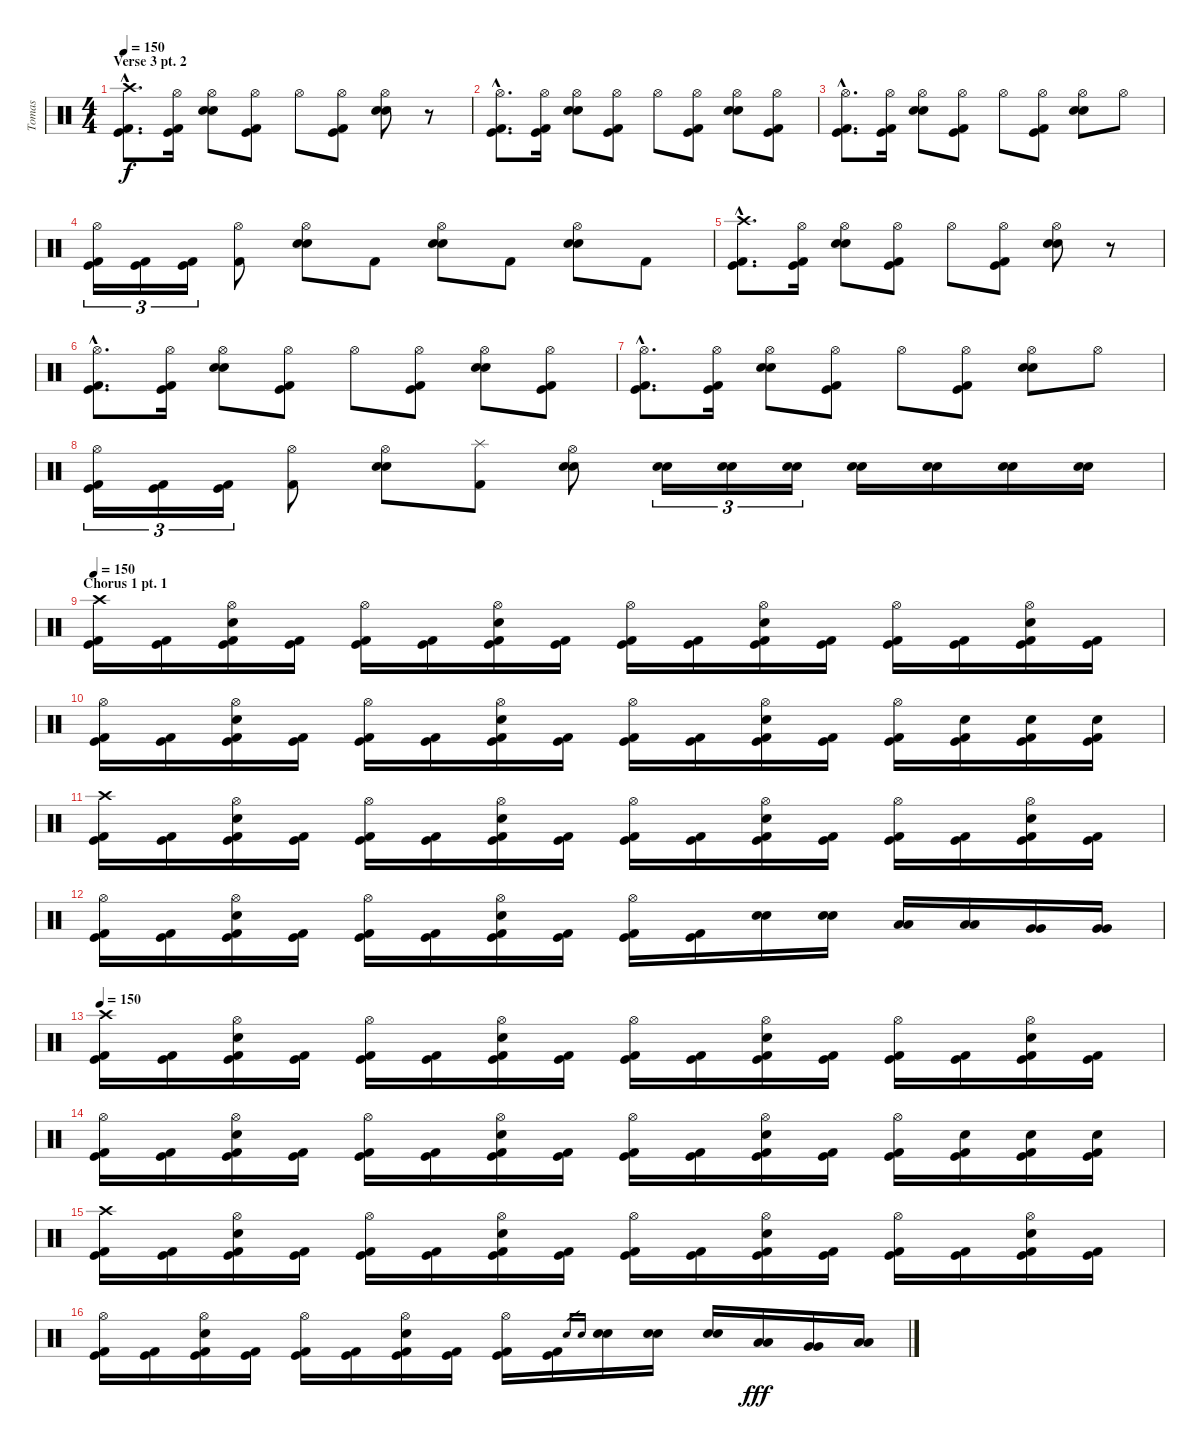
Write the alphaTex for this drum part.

\track ("Tomas" "Tomas") {instrument percussion}
\staff {score}
\articulation defaults
\ts (4 4)
\section ("" "Verse 3 pt. 2")
\tempo 150
\clef neutral
\ks c
("Crash high (hit)"{hac} "Kick (hit)"{hac} "Kick (hit) 2"{hac}).8{d dy f} ("Hi-Hat (open)" "Kick (hit)" "Kick (hit) 2").16 ("Hi-Hat (open)" "Electric Snare (hit)" "Electric Snare (hit)").8 ("Hi-Hat (open)" "Kick (hit)" "Kick (hit) 2").8 "Hi-Hat (open)".8 ("Hi-Hat (open)" "Kick (hit)" "Kick (hit) 2").8 ("Hi-Hat (open)" "Electric Snare (hit)" "Electric Snare (hit)").8 r.8 |
("Hi-Hat (open)"{hac} "Kick (hit)"{hac} "Kick (hit) 2"{hac}).8{d} ("Hi-Hat (open)" "Kick (hit)" "Kick (hit) 2").16 ("Hi-Hat (open)" "Electric Snare (hit)" "Electric Snare (hit)").8 ("Hi-Hat (open)" "Kick (hit)" "Kick (hit) 2").8 "Hi-Hat (open)".8 ("Hi-Hat (open)" "Kick (hit)" "Kick (hit) 2").8 ("Hi-Hat (open)" "Electric Snare (hit)" "Electric Snare (hit)").8 ("Hi-Hat (open)" "Kick (hit)" "Kick (hit) 2").8 |
("Hi-Hat (open)"{hac} "Kick (hit)"{hac} "Kick (hit) 2"{hac}).8{d} ("Hi-Hat (open)" "Kick (hit)" "Kick (hit) 2").16 ("Hi-Hat (open)" "Electric Snare (hit)" "Electric Snare (hit)").8 ("Hi-Hat (open)" "Kick (hit)" "Kick (hit) 2").8 "Hi-Hat (open)".8 ("Hi-Hat (open)" "Kick (hit)" "Kick (hit) 2").8 ("Hi-Hat (open)" "Electric Snare (hit)" "Electric Snare (hit)").8 "Hi-Hat (open)".8 |
("Hi-Hat (open)" "Kick (hit)" "Kick (hit) 2").16{tu (3 2)} ("Kick (hit)" "Kick (hit) 2").16{tu (3 2)} ("Kick (hit)" "Kick (hit) 2").16{tu (3 2)} ("Hi-Hat (open)" "Kick (hit) 2").8 ("Hi-Hat (open)" "Electric Snare (hit)" "Electric Snare (hit)").8 "Kick (hit) 2".8 ("Hi-Hat (open)" "Electric Snare (hit)" "Electric Snare (hit)").8 "Kick (hit) 2".8 ("Hi-Hat (open)" "Electric Snare (hit)" "Electric Snare (hit)").8 "Kick (hit) 2".8 |
("Crash high (hit)"{hac} "Kick (hit)"{hac} "Kick (hit) 2"{hac}).8{d} ("Hi-Hat (open)" "Kick (hit)" "Kick (hit) 2").16 ("Hi-Hat (open)" "Electric Snare (hit)" "Electric Snare (hit)").8 ("Hi-Hat (open)" "Kick (hit)" "Kick (hit) 2").8 "Hi-Hat (open)".8 ("Hi-Hat (open)" "Kick (hit)" "Kick (hit) 2").8 ("Hi-Hat (open)" "Electric Snare (hit)" "Electric Snare (hit)").8 r.8 |
("Hi-Hat (open)"{hac} "Kick (hit)"{hac} "Kick (hit) 2"{hac}).8{d} ("Hi-Hat (open)" "Kick (hit)" "Kick (hit) 2").16 ("Hi-Hat (open)" "Electric Snare (hit)" "Electric Snare (hit)").8 ("Hi-Hat (open)" "Kick (hit)" "Kick (hit) 2").8 "Hi-Hat (open)".8 ("Hi-Hat (open)" "Kick (hit)" "Kick (hit) 2").8 ("Hi-Hat (open)" "Electric Snare (hit)" "Electric Snare (hit)").8 ("Hi-Hat (open)" "Kick (hit)" "Kick (hit) 2").8 |
("Hi-Hat (open)"{hac} "Kick (hit)"{hac} "Kick (hit) 2"{hac}).8{d} ("Hi-Hat (open)" "Kick (hit)" "Kick (hit) 2").16 ("Hi-Hat (open)" "Electric Snare (hit)" "Electric Snare (hit)").8 ("Hi-Hat (open)" "Kick (hit)" "Kick (hit) 2").8 "Hi-Hat (open)".8 ("Hi-Hat (open)" "Kick (hit)" "Kick (hit) 2").8 ("Hi-Hat (open)" "Electric Snare (hit)" "Electric Snare (hit)").8 "Hi-Hat (open)".8 |
("Hi-Hat (open)" "Kick (hit)" "Kick (hit) 2").16{tu (3 2)} ("Kick (hit)" "Kick (hit) 2").16{tu (3 2)} ("Kick (hit)" "Kick (hit) 2").16{tu (3 2)} ("Hi-Hat (open)" "Kick (hit) 2").8 ("Hi-Hat (open)" "Electric Snare (hit)" "Electric Snare (hit)").8 ("Splash (hit)" "Kick (hit) 2").8 ("Hi-Hat (open)" "Electric Snare (hit)" "Electric Snare (hit)").8 ("Electric Snare (hit)" "Electric Snare (hit)").16{tu (3 2)} ("Electric Snare (hit)" "Electric Snare (hit)").16{tu (3 2)} ("Electric Snare (hit)" "Electric Snare (hit)").16{tu (3 2)} ("Electric Snare (hit)" "Electric Snare (hit)").16 ("Electric Snare (hit)" "Electric Snare (hit)").16 ("Electric Snare (hit)" "Electric Snare (hit)").16 ("Electric Snare (hit)" "Electric Snare (hit)").16 |
\section ("" "Chorus 1 pt. 1")
\tempo 150
("Crash high (hit)" "Kick (hit)" "Kick (hit) 2").16 ("Kick (hit)" "Kick (hit) 2").16 ("Hi-Hat (open)" "Electric Snare (hit)" "Kick (hit)" "Kick (hit) 2").16 ("Kick (hit)" "Kick (hit) 2").16 ("Hi-Hat (open)" "Kick (hit)" "Kick (hit) 2").16 ("Kick (hit)" "Kick (hit) 2").16 ("Hi-Hat (open)" "Electric Snare (hit)" "Kick (hit)" "Kick (hit) 2").16 ("Kick (hit)" "Kick (hit) 2").16 ("Hi-Hat (open)" "Kick (hit)" "Kick (hit) 2").16 ("Kick (hit)" "Kick (hit) 2").16 ("Hi-Hat (open)" "Electric Snare (hit)" "Kick (hit)" "Kick (hit) 2").16 ("Kick (hit)" "Kick (hit) 2").16 ("Hi-Hat (open)" "Kick (hit)" "Kick (hit) 2").16 ("Kick (hit)" "Kick (hit) 2").16 ("Hi-Hat (open)" "Electric Snare (hit)" "Kick (hit)" "Kick (hit) 2").16 ("Kick (hit)" "Kick (hit) 2").16 |
("Hi-Hat (open)" "Kick (hit)" "Kick (hit) 2").16 ("Kick (hit)" "Kick (hit) 2").16 ("Hi-Hat (open)" "Electric Snare (hit)" "Kick (hit)" "Kick (hit) 2").16 ("Kick (hit)" "Kick (hit) 2").16 ("Hi-Hat (open)" "Kick (hit)" "Kick (hit) 2").16 ("Kick (hit)" "Kick (hit) 2").16 ("Hi-Hat (open)" "Electric Snare (hit)" "Kick (hit)" "Kick (hit) 2").16 ("Kick (hit)" "Kick (hit) 2").16 ("Hi-Hat (open)" "Kick (hit)" "Kick (hit) 2").16 ("Kick (hit)" "Kick (hit) 2").16 ("Hi-Hat (open)" "Electric Snare (hit)" "Kick (hit)" "Kick (hit) 2").16 ("Kick (hit)" "Kick (hit) 2").16 ("Hi-Hat (open)" "Kick (hit)" "Kick (hit) 2").16 ("Electric Snare (hit)" "Kick (hit)" "Kick (hit) 2").16 ("Electric Snare (hit)" "Kick (hit)" "Kick (hit) 2").16 ("Electric Snare (hit)" "Kick (hit)" "Kick (hit) 2").16 |
("Crash high (hit)" "Kick (hit)" "Kick (hit) 2").16 ("Kick (hit)" "Kick (hit) 2").16 ("Hi-Hat (open)" "Electric Snare (hit)" "Kick (hit)" "Kick (hit) 2").16 ("Kick (hit)" "Kick (hit) 2").16 ("Hi-Hat (open)" "Kick (hit)" "Kick (hit) 2").16 ("Kick (hit)" "Kick (hit) 2").16 ("Hi-Hat (open)" "Electric Snare (hit)" "Kick (hit)" "Kick (hit) 2").16 ("Kick (hit)" "Kick (hit) 2").16 ("Hi-Hat (open)" "Kick (hit)" "Kick (hit) 2").16 ("Kick (hit)" "Kick (hit) 2").16 ("Hi-Hat (open)" "Electric Snare (hit)" "Kick (hit)" "Kick (hit) 2").16 ("Kick (hit)" "Kick (hit) 2").16 ("Hi-Hat (open)" "Kick (hit)" "Kick (hit) 2").16 ("Kick (hit)" "Kick (hit) 2").16 ("Hi-Hat (open)" "Electric Snare (hit)" "Kick (hit)" "Kick (hit) 2").16 ("Kick (hit)" "Kick (hit) 2").16 |
("Hi-Hat (open)" "Kick (hit)" "Kick (hit) 2").16 ("Kick (hit)" "Kick (hit) 2").16 ("Hi-Hat (open)" "Electric Snare (hit)" "Kick (hit)" "Kick (hit) 2").16 ("Kick (hit)" "Kick (hit) 2").16 ("Hi-Hat (open)" "Kick (hit)" "Kick (hit) 2").16 ("Kick (hit)" "Kick (hit) 2").16 ("Hi-Hat (open)" "Electric Snare (hit)" "Kick (hit)" "Kick (hit) 2").16 ("Kick (hit)" "Kick (hit) 2").16 ("Hi-Hat (open)" "Kick (hit)" "Kick (hit) 2").16 ("Kick (hit)" "Kick (hit) 2").16 ("Electric Snare (hit)" "Electric Snare (hit)").16 ("Electric Snare (hit)" "Electric Snare (hit)").16 ("Low Tom (hit)" "Low Tom (hit)").16 ("Low Tom (hit)" "Low Tom (hit)").16 ("Very Low Tom (hit)" "Very Low Tom (hit)").16 ("Very Low Tom (hit)" "Very Low Tom (hit)").16 |
\tempo 150
("Crash high (hit)" "Kick (hit)" "Kick (hit) 2").16 ("Kick (hit)" "Kick (hit) 2").16 ("Hi-Hat (open)" "Electric Snare (hit)" "Kick (hit)" "Kick (hit) 2").16 ("Kick (hit)" "Kick (hit) 2").16 ("Hi-Hat (open)" "Kick (hit)" "Kick (hit) 2").16 ("Kick (hit)" "Kick (hit) 2").16 ("Hi-Hat (open)" "Electric Snare (hit)" "Kick (hit)" "Kick (hit) 2").16 ("Kick (hit)" "Kick (hit) 2").16 ("Hi-Hat (open)" "Kick (hit)" "Kick (hit) 2").16 ("Kick (hit)" "Kick (hit) 2").16 ("Hi-Hat (open)" "Electric Snare (hit)" "Kick (hit)" "Kick (hit) 2").16 ("Kick (hit)" "Kick (hit) 2").16 ("Hi-Hat (open)" "Kick (hit)" "Kick (hit) 2").16 ("Kick (hit)" "Kick (hit) 2").16 ("Hi-Hat (open)" "Electric Snare (hit)" "Kick (hit)" "Kick (hit) 2").16 ("Kick (hit)" "Kick (hit) 2").16 |
("Hi-Hat (open)" "Kick (hit)" "Kick (hit) 2").16 ("Kick (hit)" "Kick (hit) 2").16 ("Hi-Hat (open)" "Electric Snare (hit)" "Kick (hit)" "Kick (hit) 2").16 ("Kick (hit)" "Kick (hit) 2").16 ("Hi-Hat (open)" "Kick (hit)" "Kick (hit) 2").16 ("Kick (hit)" "Kick (hit) 2").16 ("Hi-Hat (open)" "Electric Snare (hit)" "Kick (hit)" "Kick (hit) 2").16 ("Kick (hit)" "Kick (hit) 2").16 ("Hi-Hat (open)" "Kick (hit)" "Kick (hit) 2").16 ("Kick (hit)" "Kick (hit) 2").16 ("Hi-Hat (open)" "Electric Snare (hit)" "Kick (hit)" "Kick (hit) 2").16 ("Kick (hit)" "Kick (hit) 2").16 ("Hi-Hat (open)" "Kick (hit)" "Kick (hit) 2").16 ("Electric Snare (hit)" "Kick (hit)" "Kick (hit) 2").16 ("Electric Snare (hit)" "Kick (hit)" "Kick (hit) 2").16 ("Electric Snare (hit)" "Kick (hit)" "Kick (hit) 2").16 |
("Crash high (hit)" "Kick (hit)" "Kick (hit) 2").16 ("Kick (hit)" "Kick (hit) 2").16 ("Hi-Hat (open)" "Electric Snare (hit)" "Kick (hit)" "Kick (hit) 2").16 ("Kick (hit)" "Kick (hit) 2").16 ("Hi-Hat (open)" "Kick (hit)" "Kick (hit) 2").16 ("Kick (hit)" "Kick (hit) 2").16 ("Hi-Hat (open)" "Electric Snare (hit)" "Kick (hit)" "Kick (hit) 2").16 ("Kick (hit)" "Kick (hit) 2").16 ("Hi-Hat (open)" "Kick (hit)" "Kick (hit) 2").16 ("Kick (hit)" "Kick (hit) 2").16 ("Hi-Hat (open)" "Electric Snare (hit)" "Kick (hit)" "Kick (hit) 2").16 ("Kick (hit)" "Kick (hit) 2").16 ("Hi-Hat (open)" "Kick (hit)" "Kick (hit) 2").16 ("Kick (hit)" "Kick (hit) 2").16 ("Hi-Hat (open)" "Electric Snare (hit)" "Kick (hit)" "Kick (hit) 2").16 ("Kick (hit)" "Kick (hit) 2").16 |
("Hi-Hat (open)" "Kick (hit)" "Kick (hit) 2").16 ("Kick (hit)" "Kick (hit) 2").16 ("Hi-Hat (open)" "Electric Snare (hit)" "Kick (hit)" "Kick (hit) 2").16 ("Kick (hit)" "Kick (hit) 2").16 ("Hi-Hat (open)" "Kick (hit)" "Kick (hit) 2").16 ("Kick (hit)" "Kick (hit) 2").16 ("Hi-Hat (open)" "Electric Snare (hit)" "Kick (hit)" "Kick (hit) 2").16 ("Kick (hit)" "Kick (hit) 2").16 ("Hi-Hat (open)" "Kick (hit)" "Kick (hit) 2").16 ("Kick (hit)" "Kick (hit) 2").16 "Electric Snare (hit)".16{gr} "Electric Snare (hit)".16{gr} ("Electric Snare (hit)" "Electric Snare (hit)").16 ("Electric Snare (hit)" "Electric Snare (hit)").16 ("Electric Snare (hit)" "Electric Snare (hit)").16 ("Low Tom (hit)" "Low Tom (hit)").16{dy fff} ("Very Low Tom (hit)" "Very Low Tom (hit)").16 ("Low Floor Tom (hit)" "Low Floor Tom (hit)").16
